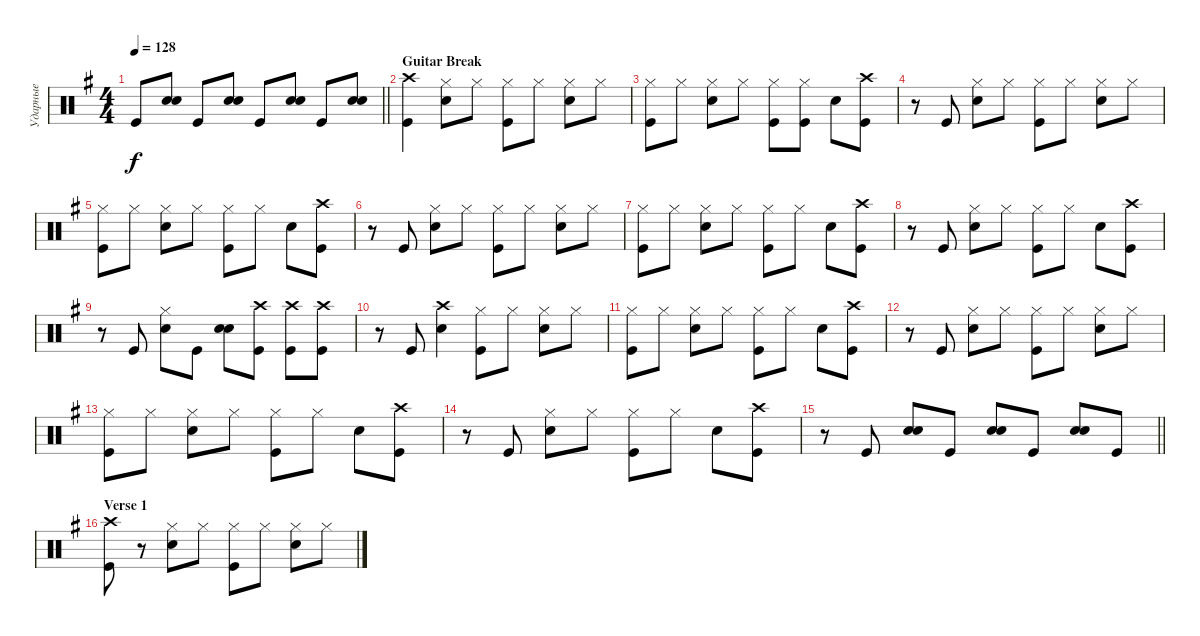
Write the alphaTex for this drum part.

\track ("Ударные" "Ударные") {instrument percussion}
\staff {score}
\articulation defaults
\ts (4 4)
\tempo 128
\clef neutral
\barLineRight lightlight
\ks eminor "Kick (hit)".8{dy f}
("Snare (hit) 2" "Snare (hit) 2").8{bd 240} "Kick (hit)".8 ("Snare (hit) 2" "Snare (hit) 2").8{bd 240} "Kick (hit)".8 ("Snare (hit) 2" "Snare (hit) 2").8{bd 240} "Kick (hit)".8 ("Snare (hit) 2" "Snare (hit) 2").8{bd 240} |
\section ("" "Guitar Break")
("Crash high (hit)" "Kick (hit)").4 ("Hi-Hat (closed)" "Snare (hit) 2").8 "Hi-Hat (closed)".8 ("Hi-Hat (closed)" "Kick (hit)").8 "Hi-Hat (closed)".8 ("Hi-Hat (closed)" "Snare (hit) 2").8 "Hi-Hat (closed)".8 |
("Hi-Hat (closed)" "Kick (hit)").8 "Hi-Hat (closed)".8 ("Hi-Hat (closed)" "Snare (hit) 2").8 "Hi-Hat (closed)".8 ("Kick (hit)" "Hi-Hat (closed)").8 ("Hi-Hat (closed)" "Kick (hit)").8 "Snare (hit) 2".8 ("Kick (hit)" "Crash high (hit)").8 |
r.8 "Kick (hit)".8 ("Hi-Hat (closed)" "Snare (hit) 2").8 "Hi-Hat (closed)".8 ("Hi-Hat (closed)" "Kick (hit)").8 "Hi-Hat (closed)".8 ("Hi-Hat (closed)" "Snare (hit) 2").8 "Hi-Hat (closed)".8 |
("Hi-Hat (closed)" "Kick (hit)").8 "Hi-Hat (closed)".8 ("Hi-Hat (closed)" "Snare (hit) 2").8 "Hi-Hat (closed)".8 ("Kick (hit)" "Hi-Hat (closed)").8 "Hi-Hat (closed)".8 "Snare (hit) 2".8 ("Kick (hit)" "Crash high (hit)").8 |
r.8 "Kick (hit)".8 ("Hi-Hat (closed)" "Snare (hit) 2").8 "Hi-Hat (closed)".8 ("Hi-Hat (closed)" "Kick (hit)").8 "Hi-Hat (closed)".8 ("Hi-Hat (closed)" "Snare (hit) 2").8 "Hi-Hat (closed)".8 |
("Hi-Hat (closed)" "Kick (hit)").8 "Hi-Hat (closed)".8 ("Hi-Hat (closed)" "Snare (hit) 2").8 "Hi-Hat (closed)".8 ("Kick (hit)" "Hi-Hat (closed)").8 "Hi-Hat (closed)".8 "Snare (hit) 2".8 ("Kick (hit)" "Crash high (hit)").8 |
r.8 "Kick (hit)".8 ("Hi-Hat (closed)" "Snare (hit) 2").8 "Hi-Hat (closed)".8 ("Hi-Hat (closed)" "Kick (hit)").8 "Hi-Hat (closed)".8 "Snare (hit) 2".8 ("Kick (hit)" "Crash high (hit)").8 |
r.8 "Kick (hit)".8 ("Hi-Hat (closed)" "Snare (hit) 2").8 "Kick (hit)".8 ("Snare (hit) 2" "Snare (hit) 2").8{bd 240} ("Kick (hit)" "Crash high (hit)").8 ("Kick (hit)" "Crash high (hit)").8 ("Kick (hit)" "Crash high (hit)").8 |
r.8 "Kick (hit)".8 ("Crash high (hit)" "Snare (hit) 2").4 ("Hi-Hat (closed)" "Kick (hit)").8 "Hi-Hat (closed)".8 ("Hi-Hat (closed)" "Snare (hit) 2").8 "Hi-Hat (closed)".8 |
("Hi-Hat (closed)" "Kick (hit)").8 "Hi-Hat (closed)".8 ("Hi-Hat (closed)" "Snare (hit) 2").8 "Hi-Hat (closed)".8 ("Kick (hit)" "Hi-Hat (closed)").8 "Hi-Hat (closed)".8 "Snare (hit) 2".8 ("Kick (hit)" "Crash high (hit)").8 |
r.8 "Kick (hit)".8 ("Hi-Hat (closed)" "Snare (hit) 2").8 "Hi-Hat (closed)".8 ("Hi-Hat (closed)" "Kick (hit)").8 "Hi-Hat (closed)".8 ("Hi-Hat (closed)" "Snare (hit) 2").8 "Hi-Hat (closed)".8 |
("Hi-Hat (closed)" "Kick (hit)").8 "Hi-Hat (closed)".8 ("Hi-Hat (closed)" "Snare (hit) 2").8 "Hi-Hat (closed)".8 ("Kick (hit)" "Hi-Hat (closed)").8 "Hi-Hat (closed)".8 "Snare (hit) 2".8 ("Kick (hit)" "Crash high (hit)").8 |
r.8 "Kick (hit)".8 ("Hi-Hat (closed)" "Snare (hit) 2").8 "Hi-Hat (closed)".8 ("Kick (hit)" "Hi-Hat (closed)").8 "Hi-Hat (closed)".8 "Snare (hit) 2".8 ("Kick (hit)" "Crash high (hit)").8 |
\barLineRight lightlight
r.8 "Kick (hit)".8 ("Snare (hit) 2" "Snare (hit) 2").8{bd 240} "Kick (hit)".8 ("Snare (hit) 2" "Snare (hit) 2").8{bd 240} "Kick (hit)".8 ("Snare (hit) 2" "Snare (hit) 2").8{bd 240} "Kick (hit)".8 |
\section ("" "Verse 1")
("Crash high (hit)" "Kick (hit)").8 r.8 ("Hi-Hat (closed)" "Snare (hit) 2").8 "Hi-Hat (closed)".8 ("Hi-Hat (closed)" "Kick (hit)").8 "Hi-Hat (closed)".8 ("Hi-Hat (closed)" "Snare (hit) 2").8 "Hi-Hat (closed)".8
